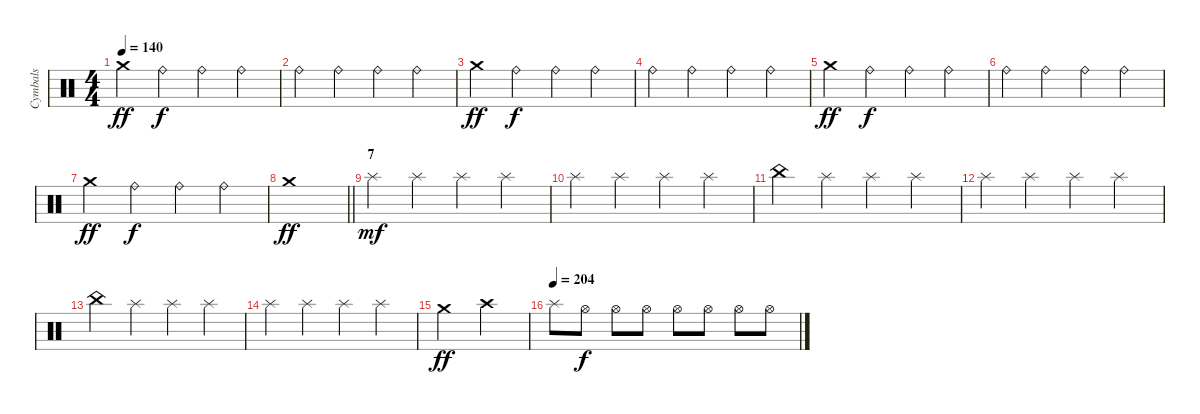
\track ("Cymbals" "Cymbals") {instrument percussion}
\staff {score}
\articulation defaults
\ts (4 4)
\tempo 140
\clef neutral
\ks c "Crash medium (hit)".4{dy ff} "Ride (bell)".4{dy f} "Ride (bell)".4 "Ride (bell)".4
|
"Ride (bell)".4 "Ride (bell)".4 "Ride (bell)".4 "Ride (bell)".4 |
"Crash medium (hit)".4{dy ff} "Ride (bell)".4{dy f} "Ride (bell)".4 "Ride (bell)".4 |
"Ride (bell)".4 "Ride (bell)".4 "Ride (bell)".4 "Ride (bell)".4 |
"Crash medium (hit)".4{dy ff} "Ride (bell)".4{dy f} "Ride (bell)".4 "Ride (bell)".4 |
"Ride (bell)".4 "Ride (bell)".4 "Ride (bell)".4 "Ride (bell)".4 |
"Crash medium (hit)".4{dy ff} "Ride (bell)".4{dy f} "Ride (bell)".4 "Ride (bell)".4 |
\barLineRight lightlight "Crash medium (hit)".1{dy ff}
|
\section ("" "7")
"Splash (hit)".4{dy mf} "Splash (hit)".4 "Splash (hit)".4 "Splash (hit)".4 |
"Splash (hit)".4 "Splash (hit)".4 "Splash (hit)".4 "Splash (hit)".4 |
"China (hit)".4 "Splash (hit)".4 "Splash (hit)".4 "Splash (hit)".4 |
"Splash (hit)".4 "Splash (hit)".4 "Splash (hit)".4 "Splash (hit)".4 |
"China (hit)".4 "Splash (hit)".4 "Splash (hit)".4 "Splash (hit)".4 |
"Splash (hit)".4 "Splash (hit)".4 "Splash (hit)".4 "Splash (hit)".4 |
"Crash medium (hit)".2{dy ff} "Crash high (hit)".2 |
\tempo (204)
"Splash (hit)".8 "Hi-Hat (open)".8{dy f} "Hi-Hat (open)".8 "Hi-Hat (open)".8 "Hi-Hat (open)".8 "Hi-Hat (open)".8 "Hi-Hat (open)".8 "Hi-Hat (open)".8
